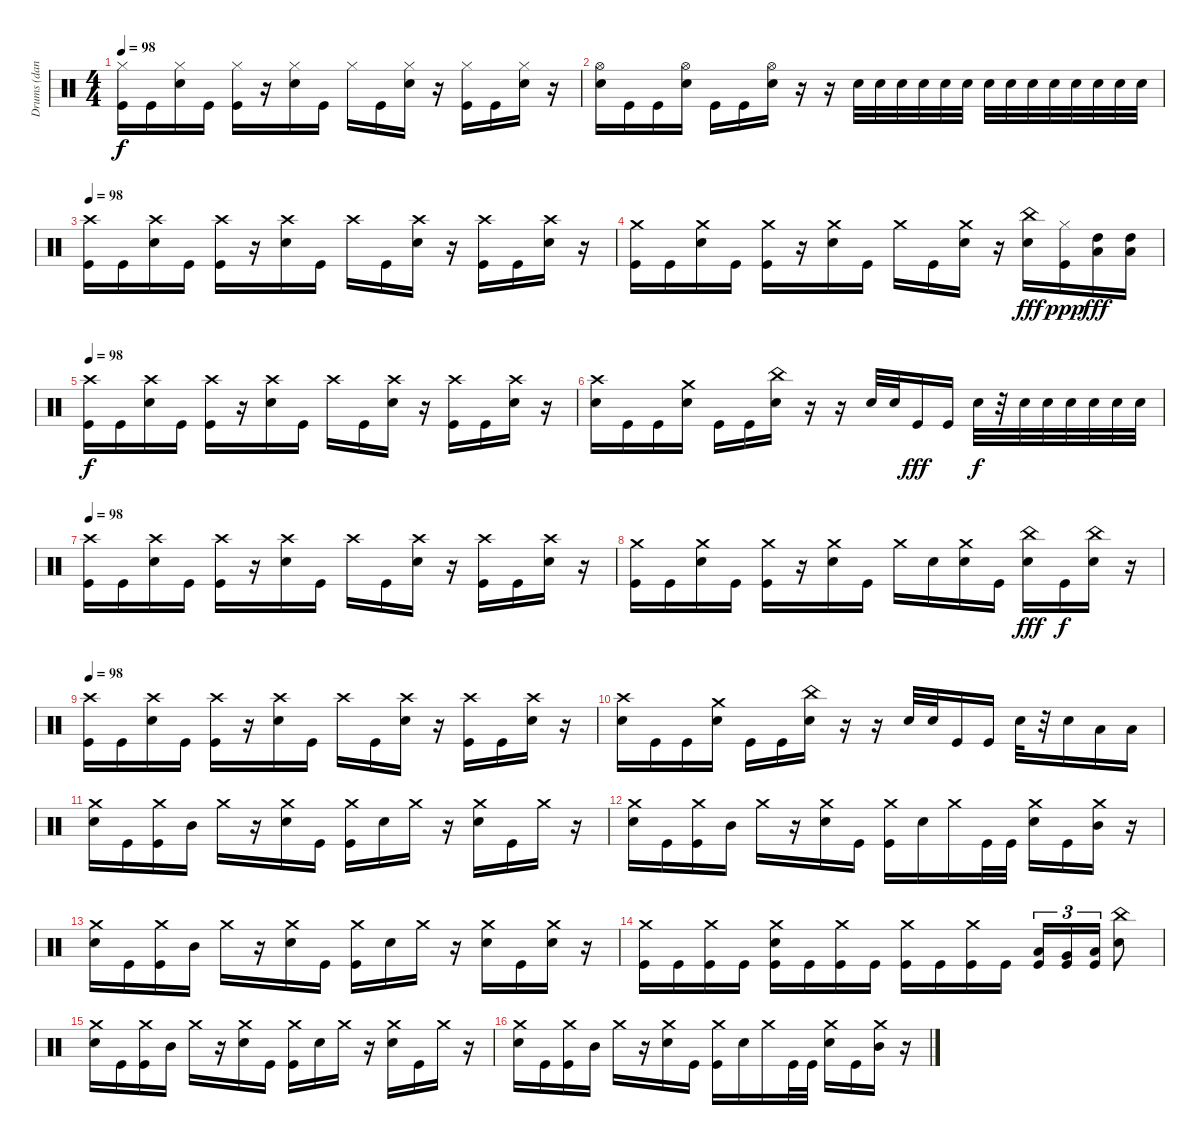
\track ("Drums (dan)" "Drums (dan") {instrument percussion}
\staff {score}
\articulation defaults
\ts (4 4)
\tempo 98
\clef neutral
\ks c
("Hi-Hat (closed)" "Kick (hit)").16{dy f} "Kick (hit)".16 ("Hi-Hat (closed)" "Snare (hit) 2").16 "Kick (hit)".16 ("Hi-Hat (closed)" "Kick (hit)").16 r.16 ("Hi-Hat (closed)" "Snare (hit) 2").16 "Kick (hit)".16 "Hi-Hat (closed)".16 "Kick (hit)".16 ("Hi-Hat (closed)" "Snare (hit) 2").16 r.16 ("Hi-Hat (closed)" "Kick (hit)").16 "Kick (hit)".16 ("Hi-Hat (closed)" "Snare (hit) 2").16 r.16 |
("Hi-Hat (open)" "Snare (hit) 2").16 "Kick (hit)".16 "Kick (hit)".16 ("Hi-Hat (open)" "Snare (hit) 2").16 "Kick (hit)".16 "Kick (hit)".16 ("Hi-Hat (open)" "Snare (hit) 2").16 r.16 r.16 "Snare (hit) 2".32 "Snare (hit) 2".32 "Snare (hit) 2".32 "Snare (hit) 2".32 "Snare (hit) 2".32 "Snare (hit) 2".32 "Snare (hit) 2".32 "Snare (hit) 2".32 "Snare (hit) 2".32 "Snare (hit) 2".32 "Snare (hit) 2".32 "Snare (hit) 2".32 "Snare (hit) 2".32 "Snare (hit) 2".32 |
\tempo 98
("Crash high (hit)" "Kick (hit)").16 "Kick (hit)".16 ("Crash high (hit)" "Snare (hit) 2").16 "Kick (hit)".16 ("Crash high (hit)" "Kick (hit)").16 r.16 ("Crash high (hit)" "Snare (hit) 2").16 "Kick (hit)".16 "Crash high (hit)".16 "Kick (hit)".16 ("Crash high (hit)" "Snare (hit) 2").16 r.16 ("Crash high (hit)" "Kick (hit)").16 "Kick (hit)".16 ("Crash high (hit)" "Snare (hit) 2").16 r.16 |
("Crash medium (hit)" "Kick (hit)").16 "Kick (hit)".16 ("Crash medium (hit)" "Snare (hit) 2").16 "Kick (hit)".16 ("Crash medium (hit)" "Kick (hit)").16 r.16 ("Crash medium (hit)" "Snare (hit) 2").16 "Kick (hit)".16 "Crash medium (hit)".16 "Kick (hit)".16 ("Crash medium (hit)" "Snare (hit) 2").16 r.16 ("China (hit)" "Snare (hit) 2").16{dy fff} ("Hi-Hat (closed)" "Kick (hit)").16{dy ppp} ("High Tom (hit)" "Low Floor Tom (hit)").16{dy fff} ("High Tom (hit)" "Low Floor Tom (hit)").16 |
\tempo 98
("Crash high (hit)" "Kick (hit)").16{dy f} "Kick (hit)".16 ("Crash high (hit)" "Snare (hit) 2").16 "Kick (hit)".16 ("Crash high (hit)" "Kick (hit)").16 r.16 ("Crash high (hit)" "Snare (hit) 2").16 "Kick (hit)".16 "Crash high (hit)".16 "Kick (hit)".16 ("Crash high (hit)" "Snare (hit) 2").16 r.16 ("Crash high (hit)" "Kick (hit)").16 "Kick (hit)".16 ("Crash high (hit)" "Snare (hit) 2").16 r.16 |
("Crash high (hit)" "Snare (hit) 2").16 "Kick (hit)".16 "Kick (hit)".16 ("Crash medium (hit)" "Snare (hit) 2").16 "Kick (hit)".16 "Kick (hit)".16 ("China (hit)" "Snare (hit) 2").16 r.16 r.16 "Snare (hit) 2".32 "Snare (hit) 2".32 "Kick (hit)".16{dy fff} "Kick (hit)".16 "Snare (hit) 2".32{dy f} r.32 "Snare (hit) 2".32 "Snare (hit) 2".32 "Snare (hit) 2".32 "Snare (hit) 2".32 "Snare (hit) 2".32 "Snare (hit) 2".32 |
\tempo 98
("Crash high (hit)" "Kick (hit)").16 "Kick (hit)".16 ("Crash high (hit)" "Snare (hit) 2").16 "Kick (hit)".16 ("Crash high (hit)" "Kick (hit)").16 r.16 ("Crash high (hit)" "Snare (hit) 2").16 "Kick (hit)".16 "Crash high (hit)".16 "Kick (hit)".16 ("Crash high (hit)" "Snare (hit) 2").16 r.16 ("Crash high (hit)" "Kick (hit)").16 "Kick (hit)".16 ("Crash high (hit)" "Snare (hit) 2").16 r.16 |
("Crash medium (hit)" "Kick (hit)").16 "Kick (hit)".16 ("Crash medium (hit)" "Snare (hit) 2").16 "Kick (hit)".16 ("Crash medium (hit)" "Kick (hit)").16 r.16 ("Crash medium (hit)" "Snare (hit) 2").16 "Kick (hit)".16 "Crash medium (hit)".16 "Snare (hit) 2".16 ("Crash medium (hit)" "Snare (hit) 2").16 "Kick (hit)".16 ("China (hit)" "Snare (hit) 2").16{dy fff} "Kick (hit)".16{dy f} ("China (hit)" "Snare (hit) 2").16 r.16 |
\tempo 98
("Crash high (hit)" "Kick (hit)").16 "Kick (hit)".16 ("Crash high (hit)" "Snare (hit) 2").16 "Kick (hit)".16 ("Crash high (hit)" "Kick (hit)").16 r.16 ("Crash high (hit)" "Snare (hit) 2").16 "Kick (hit)".16 "Crash high (hit)".16 "Kick (hit)".16 ("Crash high (hit)" "Snare (hit) 2").16 r.16 ("Crash high (hit)" "Kick (hit)").16 "Kick (hit)".16 ("Crash high (hit)" "Snare (hit) 2").16 r.16 |
("Crash high (hit)" "Snare (hit) 2").16 "Kick (hit)".16 "Kick (hit)".16 ("Crash medium (hit)" "Snare (hit) 2").16 "Kick (hit)".16 "Kick (hit)".16 ("China (hit)" "Snare (hit) 2").16 r.16 r.16 "Snare (hit) 2".32 "Snare (hit) 2".32 "Kick (hit)".16 "Kick (hit)".16 "Snare (hit) 2".32 r.32 "Snare (hit) 2".16 "Low Tom (hit)".16 "Low Floor Tom (hit)".16 |
("Crash medium (hit)" "Snare (hit) 2").16 "Kick (hit)".16 ("Crash medium (hit)" "Kick (hit)").16 "Mid Tom (hit)".16 "Crash medium (hit)".16 r.16 ("Crash medium (hit)" "Snare (hit) 2").16 "Kick (hit)".16 ("Crash medium (hit)" "Kick (hit)").16 "Snare (hit) 2".16 "Crash medium (hit)".16 r.16 ("Crash medium (hit)" "Snare (hit) 2").16 "Kick (hit)".16 "Crash medium (hit)".16 r.16 |
("Crash medium (hit)" "Snare (hit) 2").16 "Kick (hit)".16 ("Crash medium (hit)" "Kick (hit)").16 "Mid Tom (hit)".16 "Crash medium (hit)".16 r.16 ("Crash medium (hit)" "Snare (hit) 2").16 "Kick (hit)".16 ("Crash medium (hit)" "Kick (hit)").16 "Snare (hit) 2".16 "Crash medium (hit)".16 "Kick (hit)".32 "Kick (hit)".32 ("Crash medium (hit)" "Snare (hit) 2").16 "Kick (hit)".16 ("Crash medium (hit)" "Mid Tom (hit)").16 r.16 |
("Crash medium (hit)" "Snare (hit) 2").16 "Kick (hit)".16 ("Crash medium (hit)" "Kick (hit)").16 "Mid Tom (hit)".16 "Crash medium (hit)".16 r.16 ("Crash medium (hit)" "Snare (hit) 2").16 "Kick (hit)".16 ("Crash medium (hit)" "Kick (hit)").16 "Snare (hit) 2".16 "Crash medium (hit)".16 r.16 ("Crash medium (hit)" "Snare (hit) 2").16 "Kick (hit)".16 ("Crash medium (hit)" "Snare (hit) 2").16 r.16 |
("Crash medium (hit)" "Kick (hit)").16 "Kick (hit)".16 ("Crash medium (hit)" "Kick (hit)").16 "Kick (hit)".16 ("Crash medium (hit)" "Snare (hit) 2" "Kick (hit)").16 "Kick (hit)".16 ("Crash medium (hit)" "Kick (hit)").16 "Kick (hit)".16 ("Crash medium (hit)" "Kick (hit)").16 "Kick (hit)".16 ("Crash medium (hit)" "Kick (hit)").16 "Kick (hit)".16 ("Low Tom (hit)" "Kick (hit)").16{tu (3 2)} ("Very Low Tom (hit)" "Kick (hit)").16{tu (3 2)} ("Low Floor Tom (hit)" "Kick (hit)").16{tu (3 2)} ("China (hit)" "Snare (hit) 2").8 |
("Crash medium (hit)" "Snare (hit) 2").16 "Kick (hit)".16 ("Crash medium (hit)" "Kick (hit)").16 "Mid Tom (hit)".16 "Crash medium (hit)".16 r.16 ("Crash medium (hit)" "Snare (hit) 2").16 "Kick (hit)".16 ("Crash medium (hit)" "Kick (hit)").16 "Snare (hit) 2".16 "Crash medium (hit)".16 r.16 ("Crash medium (hit)" "Snare (hit) 2").16 "Kick (hit)".16 "Crash medium (hit)".16 r.16 |
("Crash medium (hit)" "Snare (hit) 2").16 "Kick (hit)".16 ("Crash medium (hit)" "Kick (hit)").16 "Mid Tom (hit)".16 "Crash medium (hit)".16 r.16 ("Crash medium (hit)" "Snare (hit) 2").16 "Kick (hit)".16 ("Crash medium (hit)" "Kick (hit)").16 "Snare (hit) 2".16 "Crash medium (hit)".16 "Kick (hit)".32 "Kick (hit)".32 ("Crash medium (hit)" "Snare (hit) 2").16 "Kick (hit)".16 ("Crash medium (hit)" "Mid Tom (hit)").16 r.16
